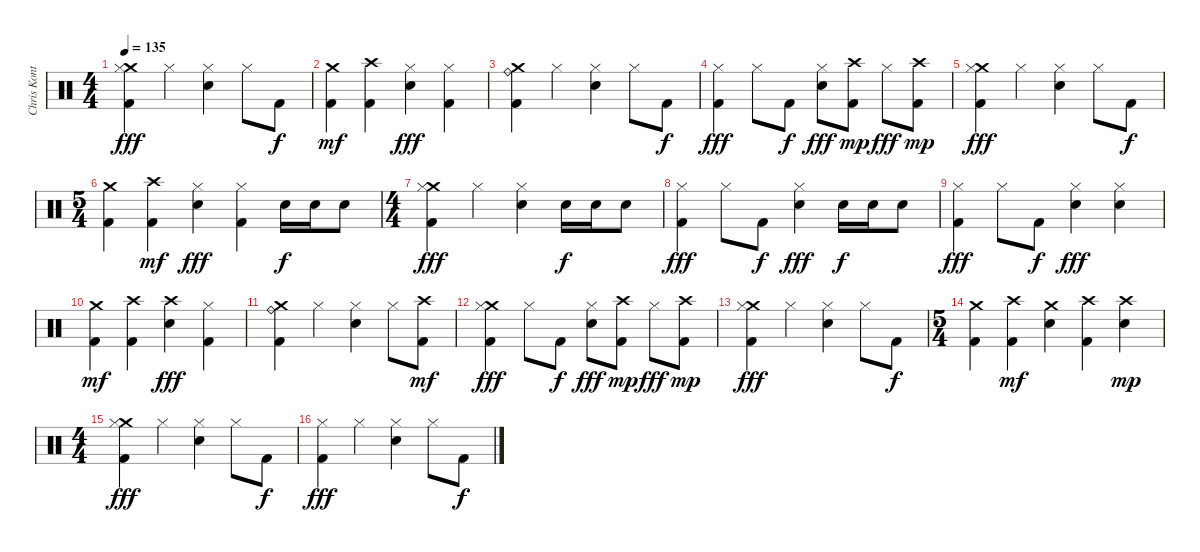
\track ("Chris Kontos" "Chris Kont") {instrument percussion}
\staff {score}
\articulation defaults
\ts (4 4)
\tempo 135
\clef neutral
\ks c
("Crash medium (hit)" "Hi-Hat (closed)" "Kick (hit) 2").4{dy fff} "Hi-Hat (closed)".4 ("Electric Snare (hit)" "Hi-Hat (closed)").4 "Hi-Hat (closed)".8 "Kick (hit) 2".8{dy f} |
("Crash medium (hit)" "Kick (hit) 2").4{dy mf} ("Crash high (hit)" "Kick (hit) 2").4 ("Electric Snare (hit)" "Hi-Hat (closed)").4{dy fff} ("Hi-Hat (closed)" "Kick (hit) 2").4 |
("Crash medium (hit)" "Ride (bell)" "Kick (hit) 2").4 "Hi-Hat (closed)".4 ("Electric Snare (hit)" "Hi-Hat (closed)").4 "Hi-Hat (closed)".8 "Kick (hit) 2".8{dy f} |
("Hi-Hat (closed)" "Kick (hit) 2").4{dy fff} "Hi-Hat (closed)".8 "Kick (hit) 2".8{dy f} ("Electric Snare (hit)" "Hi-Hat (closed)").8{dy fff} ("Crash high (hit)" "Kick (hit) 2").8{dy mp} "Hi-Hat (closed)".8{dy fff} ("Crash high (hit)" "Kick (hit) 2").8{dy mp} |
("Crash medium (hit)" "Hi-Hat (closed)" "Kick (hit) 2").4{dy fff volume 14} "Hi-Hat (closed)".4 ("Electric Snare (hit)" "Hi-Hat (closed)").4 "Hi-Hat (closed)".8 "Kick (hit) 2".8{dy f} |
\ts (5 4)
("Crash medium (hit)" "Kick (hit) 2").4 ("Crash high (hit)" "Kick (hit) 2").4{dy mf} ("Electric Snare (hit)" "Hi-Hat (closed)").4{dy fff} ("Hi-Hat (closed)" "Kick (hit) 2").4 "Electric Snare (hit)".16{dy f} "Electric Snare (hit)".16 "Electric Snare (hit)".8 |
\ts (4 4)
("Crash medium (hit)" "Hi-Hat (closed)" "Kick (hit) 2").4{dy fff volume 12} "Hi-Hat (closed)".4 ("Electric Snare (hit)" "Hi-Hat (closed)").4 "Electric Snare (hit)".16{dy f} "Electric Snare (hit)".16 "Electric Snare (hit)".8 |
("Hi-Hat (closed)" "Kick (hit) 2").4{dy fff} "Hi-Hat (closed)".8 "Kick (hit) 2".8{dy f} ("Electric Snare (hit)" "Hi-Hat (closed)").4{dy fff} "Electric Snare (hit)".16{dy f} "Electric Snare (hit)".16 "Electric Snare (hit)".8 |
("Hi-Hat (closed)" "Kick (hit) 2").4{dy fff volume 10} "Hi-Hat (closed)".8 "Kick (hit) 2".8{dy f} ("Electric Snare (hit)" "Hi-Hat (closed)").4{dy fff} ("Electric Snare (hit)" "Hi-Hat (closed)").4 |
("Crash medium (hit)" "Kick (hit) 2").4{dy mf} ("Crash high (hit)" "Kick (hit) 2").4 ("Crash high (hit)" "Electric Snare (hit)").4{dy fff} ("Hi-Hat (closed)" "Kick (hit) 2").4 |
("Crash medium (hit)" "Ride (bell)" "Kick (hit) 2").4{volume 9} "Hi-Hat (closed)".4 ("Electric Snare (hit)" "Hi-Hat (closed)").4 "Hi-Hat (closed)".8 ("Crash high (hit)" "Kick (hit) 2").8{dy mf} |
("Crash medium (hit)" "Hi-Hat (closed)" "Kick (hit) 2").4{dy fff} "Hi-Hat (closed)".8 "Kick (hit) 2".8{dy f} ("Electric Snare (hit)" "Hi-Hat (closed)").8{dy fff} ("Crash high (hit)" "Kick (hit) 2").8{dy mp} "Hi-Hat (closed)".8{dy fff} ("Crash high (hit)" "Kick (hit) 2").8{dy mp} |
("Crash medium (hit)" "Hi-Hat (closed)" "Kick (hit) 2").4{dy fff volume 8} "Hi-Hat (closed)".4 ("Electric Snare (hit)" "Hi-Hat (closed)").4 "Hi-Hat (closed)".8 "Kick (hit) 2".8{dy f} |
\ts (5 4)
("Crash medium (hit)" "Kick (hit) 2").4 ("Crash high (hit)" "Kick (hit) 2").4{dy mf} ("Crash medium (hit)" "Electric Snare (hit)").4 ("Crash high (hit)" "Kick (hit) 2").4 ("Crash high (hit)" "Electric Snare (hit)").4{dy mp} |
\ts (4 4)
("Crash medium (hit)" "Hi-Hat (closed)" "Kick (hit) 2").4{dy fff volume 7} "Hi-Hat (closed)".4 ("Electric Snare (hit)" "Hi-Hat (closed)").4 "Hi-Hat (closed)".8 "Kick (hit) 2".8{dy f} |
("Hi-Hat (closed)" "Kick (hit) 2").4{dy fff} "Hi-Hat (closed)".4 ("Electric Snare (hit)" "Hi-Hat (closed)").4 "Hi-Hat (closed)".8 "Kick (hit) 2".8{dy f}
